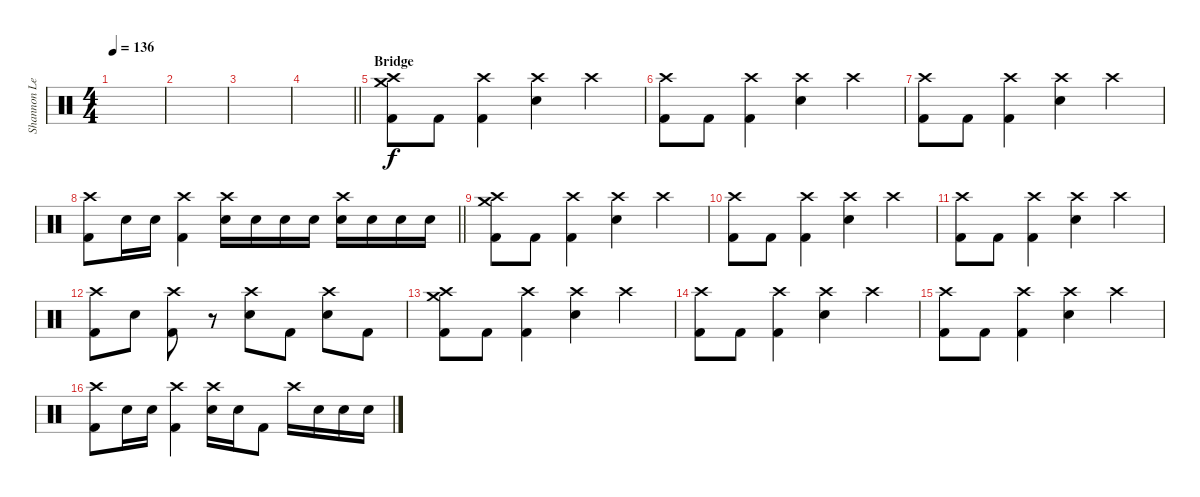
\track ("Shannon Leto [Drums]" "Shannon Le") {instrument percussion}
\staff {score}
\articulation defaults
\ts (4 4)
\tempo 136
\clef neutral
\ks c
|
|
|
\barLineRight lightlight
|
\section ("" "Bridge")
("Crash high (hit)" "Crash medium (hit)" "Kick (hit) 2").8 "Kick (hit) 2".8 ("Crash high (hit)" "Kick (hit) 2").4 ("Crash high (hit)" "Electric Snare (hit)").4 "Crash high (hit)".4 |
("Crash high (hit)" "Kick (hit) 2").8 "Kick (hit) 2".8 ("Crash high (hit)" "Kick (hit) 2").4 ("Crash high (hit)" "Electric Snare (hit)").4 "Crash high (hit)".4 |
("Crash high (hit)" "Kick (hit) 2").8 "Kick (hit) 2".8 ("Crash high (hit)" "Kick (hit) 2").4 ("Crash high (hit)" "Electric Snare (hit)").4 "Crash high (hit)".4 |
\barLineRight lightlight
("Crash high (hit)" "Kick (hit) 2").8 "Electric Snare (hit)".16 "Electric Snare (hit)".16 ("Crash high (hit)" "Kick (hit) 2").4 ("Crash high (hit)" "Electric Snare (hit)").16 "Electric Snare (hit)".16 "Electric Snare (hit)".16 "Electric Snare (hit)".16 ("Crash high (hit)" "Electric Snare (hit)").16 "Electric Snare (hit)".16 "Electric Snare (hit)".16 "Electric Snare (hit)".16 |
("Crash high (hit)" "Crash medium (hit)" "Kick (hit) 2").8 "Kick (hit) 2".8 ("Crash high (hit)" "Kick (hit) 2").4 ("Crash high (hit)" "Electric Snare (hit)").4 "Crash high (hit)".4 |
("Crash high (hit)" "Kick (hit) 2").8 "Kick (hit) 2".8 ("Crash high (hit)" "Kick (hit) 2").4 ("Crash high (hit)" "Electric Snare (hit)").4 "Crash high (hit)".4 |
("Crash high (hit)" "Kick (hit) 2").8 "Kick (hit) 2".8 ("Crash high (hit)" "Kick (hit) 2").4 ("Crash high (hit)" "Electric Snare (hit)").4 "Crash high (hit)".4 |
("Crash high (hit)" "Kick (hit) 2").8 "Electric Snare (hit)".8 ("Crash high (hit)" "Kick (hit) 2").8 r.8 ("Crash high (hit)" "Electric Snare (hit)").8 "Kick (hit) 2".8 ("Crash high (hit)" "Electric Snare (hit)").8 "Kick (hit) 2".8 |
("Crash high (hit)" "Crash medium (hit)" "Kick (hit) 2").8 "Kick (hit) 2".8 ("Crash high (hit)" "Kick (hit) 2").4 ("Crash high (hit)" "Electric Snare (hit)").4 "Crash high (hit)".4 |
("Crash high (hit)" "Kick (hit) 2").8 "Kick (hit) 2".8 ("Crash high (hit)" "Kick (hit) 2").4 ("Crash high (hit)" "Electric Snare (hit)").4 "Crash high (hit)".4 |
("Crash high (hit)" "Kick (hit) 2").8 "Kick (hit) 2".8 ("Crash high (hit)" "Kick (hit) 2").4 ("Crash high (hit)" "Electric Snare (hit)").4 "Crash high (hit)".4 |
("Crash high (hit)" "Kick (hit) 2").8 "Electric Snare (hit)".16 "Electric Snare (hit)".16 ("Crash high (hit)" "Kick (hit) 2").4 ("Crash high (hit)" "Electric Snare (hit)").16 "Electric Snare (hit)".16 "Kick (hit) 2".8 "Crash high (hit)".16 "Electric Snare (hit)".16 "Electric Snare (hit)".16 "Electric Snare (hit)".16
